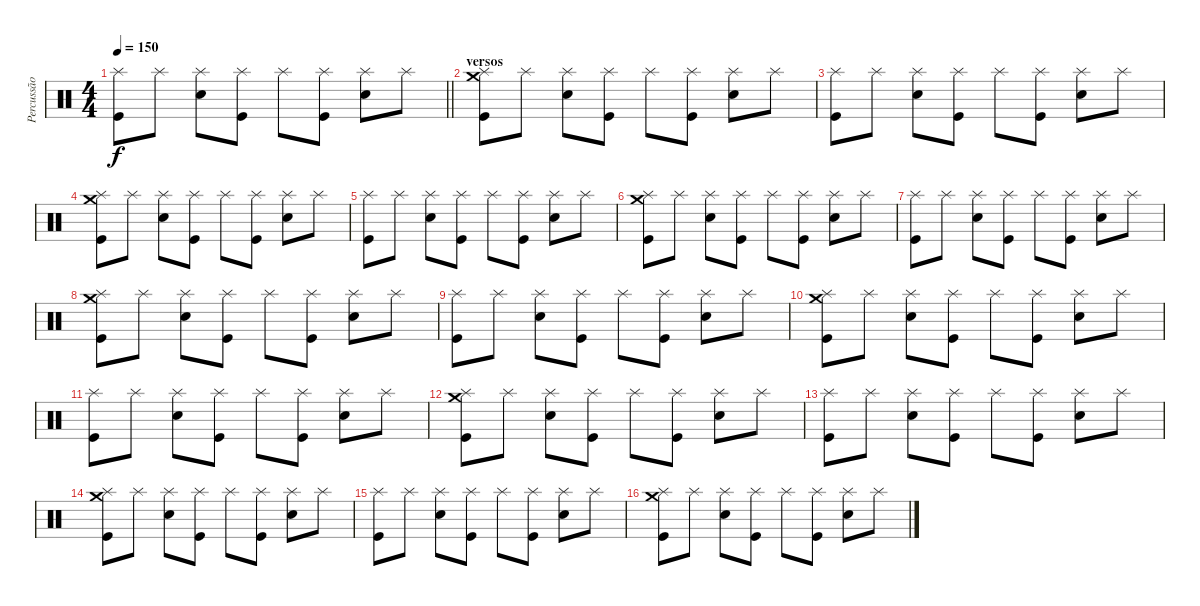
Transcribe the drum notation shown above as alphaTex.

\track ("Percussão" "Percussão") {instrument percussion}
\staff {score}
\articulation defaults
\ts (4 4)
\tempo 150
\clef neutral
\barLineRight lightlight
\ks c
("Splash (hit)" "Kick (hit)").8{dy f} "Splash (hit)".8 ("Splash (hit)" "Electric Snare (hit)").8 ("Splash (hit)" "Kick (hit)").8 "Splash (hit)".8 ("Splash (hit)" "Kick (hit)").8 ("Splash (hit)" "Electric Snare (hit)").8 "Splash (hit)".8 |
\section ("" "versos")
("Crash medium (hit)" "Splash (hit)" "Kick (hit)").8 "Splash (hit)".8 ("Splash (hit)" "Electric Snare (hit)").8 ("Splash (hit)" "Kick (hit)").8 "Splash (hit)".8 ("Splash (hit)" "Kick (hit)").8 ("Splash (hit)" "Electric Snare (hit)").8 "Splash (hit)".8 |
("Splash (hit)" "Kick (hit)").8 "Splash (hit)".8 ("Splash (hit)" "Electric Snare (hit)").8 ("Splash (hit)" "Kick (hit)").8 "Splash (hit)".8 ("Splash (hit)" "Kick (hit)").8 ("Splash (hit)" "Electric Snare (hit)").8 "Splash (hit)".8 |
("Crash medium (hit)" "Splash (hit)" "Kick (hit)").8 "Splash (hit)".8 ("Splash (hit)" "Electric Snare (hit)").8 ("Splash (hit)" "Kick (hit)").8 "Splash (hit)".8 ("Splash (hit)" "Kick (hit)").8 ("Splash (hit)" "Electric Snare (hit)").8 "Splash (hit)".8 |
("Splash (hit)" "Kick (hit)").8 "Splash (hit)".8 ("Splash (hit)" "Electric Snare (hit)").8 ("Splash (hit)" "Kick (hit)").8 "Splash (hit)".8 ("Splash (hit)" "Kick (hit)").8 ("Splash (hit)" "Electric Snare (hit)").8 "Splash (hit)".8 |
("Crash medium (hit)" "Splash (hit)" "Kick (hit)").8 "Splash (hit)".8 ("Splash (hit)" "Electric Snare (hit)").8 ("Splash (hit)" "Kick (hit)").8 "Splash (hit)".8 ("Splash (hit)" "Kick (hit)").8 ("Splash (hit)" "Electric Snare (hit)").8 "Splash (hit)".8 |
("Splash (hit)" "Kick (hit)").8 "Splash (hit)".8 ("Splash (hit)" "Electric Snare (hit)").8 ("Splash (hit)" "Kick (hit)").8 "Splash (hit)".8 ("Splash (hit)" "Kick (hit)").8 ("Splash (hit)" "Electric Snare (hit)").8 "Splash (hit)".8 |
("Crash medium (hit)" "Splash (hit)" "Kick (hit)").8 "Splash (hit)".8 ("Splash (hit)" "Electric Snare (hit)").8 ("Splash (hit)" "Kick (hit)").8 "Splash (hit)".8 ("Splash (hit)" "Kick (hit)").8 ("Splash (hit)" "Electric Snare (hit)").8 "Splash (hit)".8 |
("Splash (hit)" "Kick (hit)").8 "Splash (hit)".8 ("Splash (hit)" "Electric Snare (hit)").8 ("Splash (hit)" "Kick (hit)").8 "Splash (hit)".8 ("Splash (hit)" "Kick (hit)").8 ("Splash (hit)" "Electric Snare (hit)").8 "Splash (hit)".8 |
("Crash medium (hit)" "Splash (hit)" "Kick (hit)").8 "Splash (hit)".8 ("Splash (hit)" "Electric Snare (hit)").8 ("Splash (hit)" "Kick (hit)").8 "Splash (hit)".8 ("Splash (hit)" "Kick (hit)").8 ("Splash (hit)" "Electric Snare (hit)").8 "Splash (hit)".8 |
("Splash (hit)" "Kick (hit)").8 "Splash (hit)".8 ("Splash (hit)" "Electric Snare (hit)").8 ("Splash (hit)" "Kick (hit)").8 "Splash (hit)".8 ("Splash (hit)" "Kick (hit)").8 ("Splash (hit)" "Electric Snare (hit)").8 "Splash (hit)".8 |
("Crash medium (hit)" "Splash (hit)" "Kick (hit)").8 "Splash (hit)".8 ("Splash (hit)" "Electric Snare (hit)").8 ("Splash (hit)" "Kick (hit)").8 "Splash (hit)".8 ("Splash (hit)" "Kick (hit)").8 ("Splash (hit)" "Electric Snare (hit)").8 "Splash (hit)".8 |
("Splash (hit)" "Kick (hit)").8 "Splash (hit)".8 ("Splash (hit)" "Electric Snare (hit)").8 ("Splash (hit)" "Kick (hit)").8 "Splash (hit)".8 ("Splash (hit)" "Kick (hit)").8 ("Splash (hit)" "Electric Snare (hit)").8 "Splash (hit)".8 |
("Crash medium (hit)" "Splash (hit)" "Kick (hit)").8 "Splash (hit)".8 ("Splash (hit)" "Electric Snare (hit)").8 ("Splash (hit)" "Kick (hit)").8 "Splash (hit)".8 ("Splash (hit)" "Kick (hit)").8 ("Splash (hit)" "Electric Snare (hit)").8 "Splash (hit)".8 |
("Splash (hit)" "Kick (hit)").8 "Splash (hit)".8 ("Splash (hit)" "Electric Snare (hit)").8 ("Splash (hit)" "Kick (hit)").8 "Splash (hit)".8 ("Splash (hit)" "Kick (hit)").8 ("Splash (hit)" "Electric Snare (hit)").8 "Splash (hit)".8 |
("Crash medium (hit)" "Splash (hit)" "Kick (hit)").8 "Splash (hit)".8 ("Splash (hit)" "Electric Snare (hit)").8 ("Splash (hit)" "Kick (hit)").8 "Splash (hit)".8 ("Splash (hit)" "Kick (hit)").8 ("Splash (hit)" "Electric Snare (hit)").8 "Splash (hit)".8
